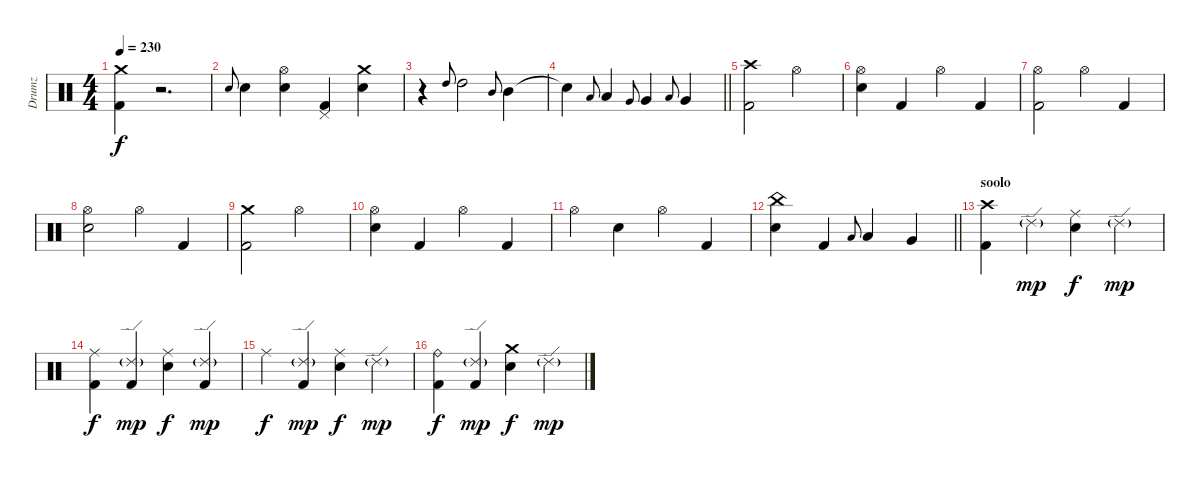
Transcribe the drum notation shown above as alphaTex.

\track ("Drumz" "Drumz") {instrument percussion}
\staff {score}
\articulation defaults
\ts (4 4)
\tempo 230
\clef neutral
\ks c
("Crash medium (hit)" "Kick (hit) 2").4{dy f} r.2{d volume 0} |
"Electric Snare (hit)".8{gr onbeat} "Electric Snare (hit)".4{volume 15} ("Hi-Hat (open)" "Electric Snare (hit)").4 ("Pedal Hi-Hat (hit)" "Kick (hit) 2").4 ("Crash medium (hit)" "Electric Snare (hit)").4 |
r.4 "High Tom (hit)".8{gr onbeat} "High Tom (hit)".2 "Mid Tom (hit)".8{gr onbeat} "Mid Tom (hit)".4 |
\barLineRight lightlight "Snare (hit)"{t}.4 "Low Tom (hit)".8{gr onbeat} "Low Tom (hit)".4 "Very Low Tom (hit)".8{gr onbeat} "Very Low Tom (hit)".4 "Low Floor Tom (hit)".8{gr onbeat} "Very Low Tom (hit)".4
|
\section ("" "")
("Crash high (hit)" "Kick (hit) 2").2 "Hi-Hat (open)".2 |
("Hi-Hat (open)" "Electric Snare (hit)").4 "Kick (hit) 2".4 "Hi-Hat (open)".4 "Kick (hit) 2".4 |
("Hi-Hat (open)" "Kick (hit) 2").2 "Hi-Hat (open)".4 "Kick (hit) 2".4 |
("Hi-Hat (open)" "Electric Snare (hit)").2 "Hi-Hat (open)".4 "Kick (hit) 2".4 |
("Crash medium (hit)" "Kick (hit) 2").2 "Hi-Hat (open)".2 |
("Hi-Hat (open)" "Electric Snare (hit)").4 "Kick (hit) 2".4 "Hi-Hat (open)".4 "Kick (hit) 2".4 |
"Hi-Hat (open)".4 "Electric Snare (hit)".4 "Hi-Hat (open)".4 "Kick (hit) 2".4 |
\barLineRight lightlight
("China (hit)" "Electric Snare (hit)").4 "Kick (hit) 2".4 "Low Tom (hit)".8{gr onbeat} "Low Tom (hit)".4 "Very Low Tom (hit)".4 |
\section ("" "soolo")
("Crash high (hit)" "Kick (hit) 2").4 "Ride (edge) 2"{g}.4{dy mp} ("Ride (middle)" "Electric Snare (hit)").4{dy f} "Ride (edge) 2"{g}.4{dy mp} |
("Ride (middle)" "Kick (hit) 2").4{dy f} ("Ride (edge) 2"{g} "Kick (hit) 2").4{dy mp} ("Ride (middle)" "Electric Snare (hit)").4{dy f} ("Ride (edge) 2"{g} "Kick (hit) 2").4{dy mp} |
"Ride (middle)".4{dy f} ("Ride (edge) 2"{g} "Kick (hit) 2").4{dy mp} ("Ride (middle)" "Electric Snare (hit)").4{dy f} "Ride (edge) 2"{g}.4{dy mp} |
("Ride (bell)" "Kick (hit) 2").4{dy f} ("Ride (edge) 2"{g} "Kick (hit) 2").4{dy mp} ("Crash medium (hit)" "Electric Snare (hit)").4{dy f} "Ride (edge) 2"{g}.4{dy mp}
